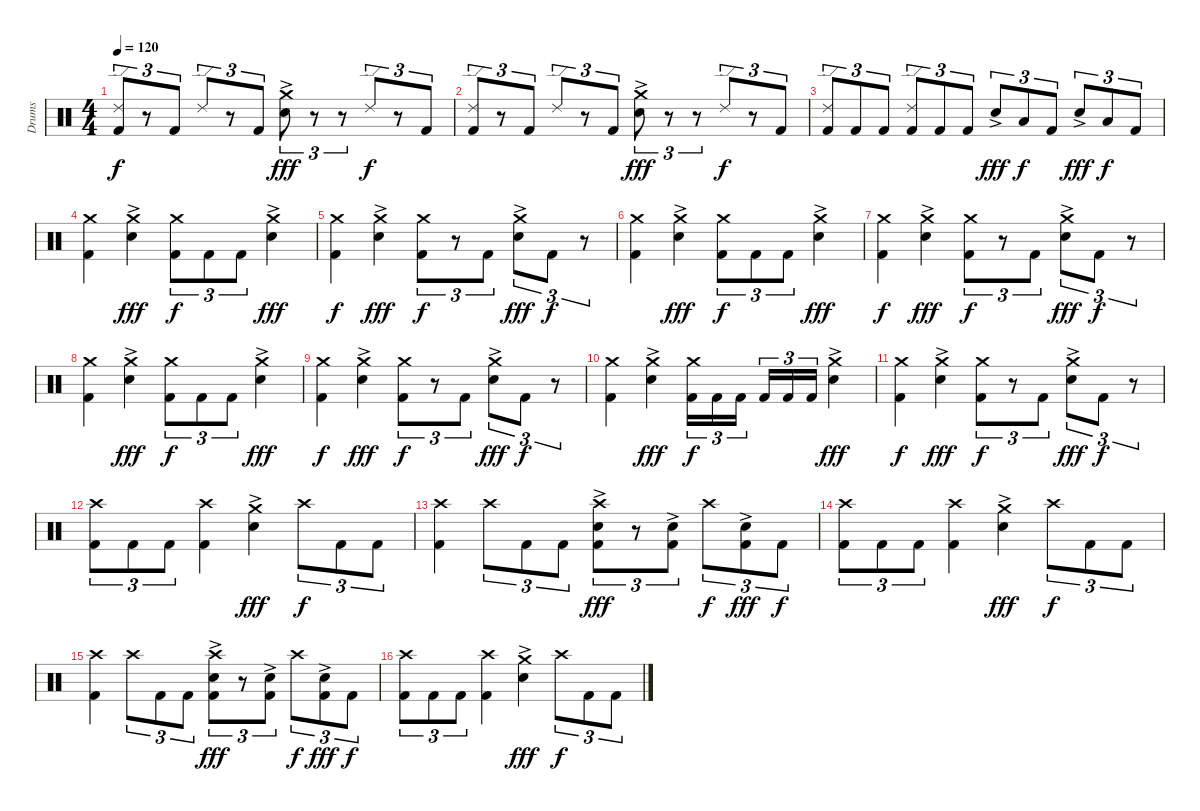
\track ("Drums" "Drums") {instrument percussion}
\staff {score}
\articulation defaults
\ts (4 4)
\tempo 120
\clef neutral
\ks c
("Ride (edge) 2" "Kick (hit) 2").8{tu (3 2) dy f} r.8{tu (3 2)} "Kick (hit) 2".8{tu (3 2)} "Ride (edge) 2".8{tu (3 2)} r.8{tu (3 2)} "Kick (hit) 2".8{tu (3 2)} ("Crash medium (hit)" "Electric Snare (hit)"{ac}).8{tu (3 2) dy fff} r.8{tu (3 2)} r.8{tu (3 2)} "Ride (edge) 2".8{tu (3 2) dy f} r.8{tu (3 2)} "Kick (hit) 2".8{tu (3 2)} |
("Ride (edge) 2" "Kick (hit) 2").8{tu (3 2)} r.8{tu (3 2)} "Kick (hit) 2".8{tu (3 2)} "Ride (edge) 2".8{tu (3 2)} r.8{tu (3 2)} "Kick (hit) 2".8{tu (3 2)} ("Crash medium (hit)" "Electric Snare (hit)"{ac}).8{tu (3 2) dy fff} r.8{tu (3 2)} r.8{tu (3 2)} "Ride (edge) 2".8{tu (3 2) dy f} r.8{tu (3 2)} "Kick (hit) 2".8{tu (3 2)} |
("Ride (edge) 2" "Kick (hit) 2").8{tu (3 2)} "Kick (hit) 2".8{tu (3 2)} "Kick (hit) 2".8{tu (3 2)} ("Ride (edge) 2" "Kick (hit) 2").8{tu (3 2)} "Kick (hit) 2".8{tu (3 2)} "Kick (hit) 2".8{tu (3 2)} "Electric Snare (hit)"{ac}.8{tu (3 2) dy fff} "Low Tom (hit)".8{tu (3 2) dy f} "Kick (hit) 2".8{tu (3 2)} "Electric Snare (hit)"{ac}.8{tu (3 2) dy fff} "Low Tom (hit)".8{tu (3 2) dy f} "Kick (hit) 2".8{tu (3 2)} |
("Crash medium (hit)" "Kick (hit) 2").4 ("Crash medium (hit)" "Electric Snare (hit)"{ac}).4{dy fff} ("Crash medium (hit)" "Kick (hit) 2").8{tu (3 2) dy f} "Kick (hit) 2".8{tu (3 2)} "Kick (hit) 2".8{tu (3 2)} ("Crash medium (hit)" "Electric Snare (hit)"{ac}).4{dy fff} |
("Crash medium (hit)" "Kick (hit) 2").4{dy f} ("Crash medium (hit)" "Electric Snare (hit)"{ac}).4{dy fff} ("Crash medium (hit)" "Kick (hit) 2").8{tu (3 2) dy f} r.8{tu (3 2)} "Kick (hit) 2".8{tu (3 2)} ("Crash medium (hit)" "Electric Snare (hit)"{ac}).8{tu (3 2) dy fff} "Kick (hit) 2".8{tu (3 2) dy f} r.8{tu (3 2)} |
("Crash medium (hit)" "Kick (hit) 2").4 ("Crash medium (hit)" "Electric Snare (hit)"{ac}).4{dy fff} ("Crash medium (hit)" "Kick (hit) 2").8{tu (3 2) dy f} "Kick (hit) 2".8{tu (3 2)} "Kick (hit) 2".8{tu (3 2)} ("Crash medium (hit)" "Electric Snare (hit)"{ac}).4{dy fff} |
("Crash medium (hit)" "Kick (hit) 2").4{dy f} ("Crash medium (hit)" "Electric Snare (hit)"{ac}).4{dy fff} ("Crash medium (hit)" "Kick (hit) 2").8{tu (3 2) dy f} r.8{tu (3 2)} "Kick (hit) 2".8{tu (3 2)} ("Crash medium (hit)" "Electric Snare (hit)"{ac}).8{tu (3 2) dy fff} "Kick (hit) 2".8{tu (3 2) dy f} r.8{tu (3 2)} |
("Crash medium (hit)" "Kick (hit) 2").4 ("Crash medium (hit)" "Electric Snare (hit)"{ac}).4{dy fff} ("Crash medium (hit)" "Kick (hit) 2").8{tu (3 2) dy f} "Kick (hit) 2".8{tu (3 2)} "Kick (hit) 2".8{tu (3 2)} ("Crash medium (hit)" "Electric Snare (hit)"{ac}).4{dy fff} |
("Crash medium (hit)" "Kick (hit) 2").4{dy f} ("Crash medium (hit)" "Electric Snare (hit)"{ac}).4{dy fff} ("Crash medium (hit)" "Kick (hit) 2").8{tu (3 2) dy f} r.8{tu (3 2)} "Kick (hit) 2".8{tu (3 2)} ("Crash medium (hit)" "Electric Snare (hit)"{ac}).8{tu (3 2) dy fff} "Kick (hit) 2".8{tu (3 2) dy f} r.8{tu (3 2)} |
("Crash medium (hit)" "Kick (hit) 2").4 ("Crash medium (hit)" "Electric Snare (hit)"{ac}).4{dy fff} ("Crash medium (hit)" "Kick (hit) 2").16{tu (3 2) dy f} "Kick (hit) 2".16{tu (3 2)} "Kick (hit) 2".16{tu (3 2)} "Kick (hit) 2".16{tu (3 2)} "Kick (hit) 2".16{tu (3 2)} "Kick (hit) 2".16{tu (3 2)} ("Crash medium (hit)" "Electric Snare (hit)"{ac}).4{dy fff} |
("Crash medium (hit)" "Kick (hit) 2").4{dy f} ("Crash medium (hit)" "Electric Snare (hit)"{ac}).4{dy fff} ("Crash medium (hit)" "Kick (hit) 2").8{tu (3 2) dy f} r.8{tu (3 2)} "Kick (hit) 2".8{tu (3 2)} ("Crash medium (hit)" "Electric Snare (hit)"{ac}).8{tu (3 2) dy fff} "Kick (hit) 2".8{tu (3 2) dy f} r.8{tu (3 2)} |
("Crash high (hit)" "Kick (hit) 2").8{tu (3 2)} "Kick (hit) 2".8{tu (3 2)} "Kick (hit) 2".8{tu (3 2)} ("Crash high (hit)" "Kick (hit) 2").4 ("Crash medium (hit)"{ac} "Electric Snare (hit)"{ac}).4{dy fff} "Crash high (hit)".8{tu (3 2) dy f} "Kick (hit) 2".8{tu (3 2)} "Kick (hit) 2".8{tu (3 2)} |
("Crash high (hit)" "Kick (hit) 2").4 "Crash high (hit)".8{tu (3 2)} "Kick (hit) 2".8{tu (3 2)} "Kick (hit) 2".8{tu (3 2)} ("Crash high (hit)" "Electric Snare (hit)"{ac} "Kick (hit) 2").8{tu (3 2) dy fff} r.8{tu (3 2)} ("Electric Snare (hit)"{ac} "Kick (hit) 2").8{tu (3 2)} "Crash high (hit)".8{tu (3 2) dy f} ("Electric Snare (hit)"{ac} "Kick (hit) 2").8{tu (3 2) dy fff} "Kick (hit) 2".8{tu (3 2) dy f} |
("Crash high (hit)" "Kick (hit) 2").8{tu (3 2)} "Kick (hit) 2".8{tu (3 2)} "Kick (hit) 2".8{tu (3 2)} ("Crash high (hit)" "Kick (hit) 2").4 ("Crash medium (hit)"{ac} "Electric Snare (hit)"{ac}).4{dy fff} "Crash high (hit)".8{tu (3 2) dy f} "Kick (hit) 2".8{tu (3 2)} "Kick (hit) 2".8{tu (3 2)} |
("Crash high (hit)" "Kick (hit) 2").4 "Crash high (hit)".8{tu (3 2)} "Kick (hit) 2".8{tu (3 2)} "Kick (hit) 2".8{tu (3 2)} ("Crash high (hit)" "Electric Snare (hit)"{ac} "Kick (hit) 2").8{tu (3 2) dy fff} r.8{tu (3 2)} ("Electric Snare (hit)"{ac} "Kick (hit) 2").8{tu (3 2)} "Crash high (hit)".8{tu (3 2) dy f} ("Electric Snare (hit)"{ac} "Kick (hit) 2").8{tu (3 2) dy fff} "Kick (hit) 2".8{tu (3 2) dy f} |
("Crash high (hit)" "Kick (hit) 2").8{tu (3 2)} "Kick (hit) 2".8{tu (3 2)} "Kick (hit) 2".8{tu (3 2)} ("Crash high (hit)" "Kick (hit) 2").4 ("Crash medium (hit)"{ac} "Electric Snare (hit)"{ac}).4{dy fff} "Crash high (hit)".8{tu (3 2) dy f} "Kick (hit) 2".8{tu (3 2)} "Kick (hit) 2".8{tu (3 2)}
